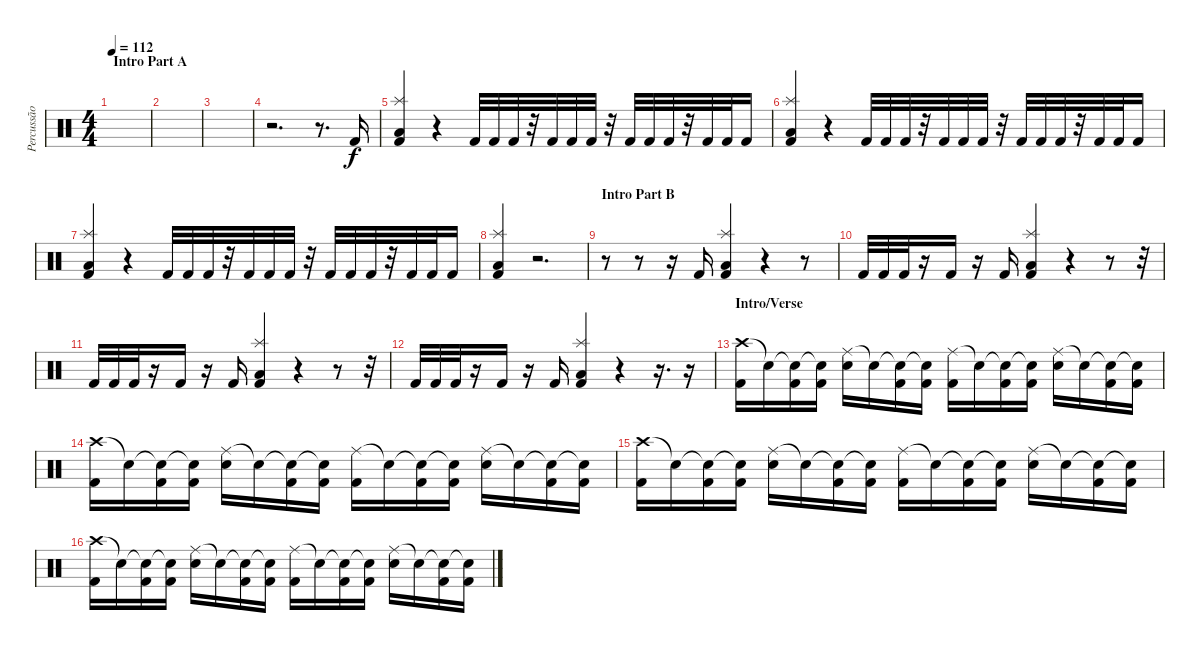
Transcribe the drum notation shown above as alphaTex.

\track ("Percussão" "Percussão") {instrument percussion}
\staff {score}
\articulation defaults
\ts (4 4)
\section ("" "Intro Part A")
\tempo 112
\clef neutral
\ks c
|
|
|
r.2{d} r.8{d} "Kick (hit) 2".16 |
("Splash (hit)" "Low Tom (hit)" "Kick (hit) 2").4 r.4 "Kick (hit) 2".32 "Kick (hit) 2".32 "Kick (hit) 2".32 r.32 "Kick (hit) 2".32 "Kick (hit) 2".32 "Kick (hit) 2".32 r.32 "Kick (hit) 2".32 "Kick (hit) 2".32 "Kick (hit) 2".32 r.32 "Kick (hit) 2".32 "Kick (hit) 2".32 "Kick (hit) 2".16 |
("Splash (hit)" "Low Tom (hit)" "Kick (hit) 2").4 r.4 "Kick (hit) 2".32 "Kick (hit) 2".32 "Kick (hit) 2".32 r.32 "Kick (hit) 2".32 "Kick (hit) 2".32 "Kick (hit) 2".32 r.32 "Kick (hit) 2".32 "Kick (hit) 2".32 "Kick (hit) 2".32 r.32 "Kick (hit) 2".32 "Kick (hit) 2".32 "Kick (hit) 2".16 |
("Splash (hit)" "Low Tom (hit)" "Kick (hit) 2").4 r.4 "Kick (hit) 2".32 "Kick (hit) 2".32 "Kick (hit) 2".32 r.32 "Kick (hit) 2".32 "Kick (hit) 2".32 "Kick (hit) 2".32 r.32 "Kick (hit) 2".32 "Kick (hit) 2".32 "Kick (hit) 2".32 r.32 "Kick (hit) 2".32 "Kick (hit) 2".32 "Kick (hit) 2".16 |
("Splash (hit)" "Low Tom (hit)" "Kick (hit) 2").4 r.2{d} |
\section ("" "Intro Part B")
r.8 r.8 r.16 "Kick (hit) 2".16 ("Splash (hit)" "Low Tom (hit)" "Kick (hit) 2").4 r.4 r.8 |
"Kick (hit) 2".32 "Kick (hit) 2".32 "Kick (hit) 2".32 r.16 "Kick (hit) 2".16 r.16 "Kick (hit) 2".16 ("Splash (hit)" "Low Tom (hit)" "Kick (hit) 2").4 r.4 r.8 r.32 |
"Kick (hit) 2".32 "Kick (hit) 2".32 "Kick (hit) 2".32 r.16 "Kick (hit) 2".16 r.16 "Kick (hit) 2".16 ("Splash (hit)" "Low Tom (hit)" "Kick (hit) 2").4 r.4 r.8 r.32 |
"Kick (hit) 2".32 "Kick (hit) 2".32 "Kick (hit) 2".32 r.16 "Kick (hit) 2".16 r.16 "Kick (hit) 2".16 ("Splash (hit)" "Low Tom (hit)" "Kick (hit) 2").4 r.4 r.16{d} r.16 |
\section ("" "Intro/Verse")
("Crash high (hit)" "Kick (hit) 2").16 "Snare (hit)"{t}.16 ("Snare (hit)"{t} "Kick (hit) 2").16 ("Snare (hit)"{t} "Kick (hit) 2").16 ("Ride (middle)" "Electric Snare (hit)").16 "Snare (hit)"{t}.16 ("Snare (hit)"{t} "Kick (hit) 2").16 ("Snare (hit)"{t} "Kick (hit) 2").16 ("Ride (middle)" "Kick (hit) 2").16 "Snare (hit)"{t}.16 ("Snare (hit)"{t} "Kick (hit) 2").16 ("Snare (hit)"{t} "Kick (hit) 2").16 ("Ride (middle)" "Electric Snare (hit)").16 "Snare (hit)"{t}.16 ("Snare (hit)"{t} "Kick (hit) 2").16 ("Snare (hit)"{t} "Kick (hit) 2").16 |
("Crash high (hit)" "Kick (hit) 2").16 "Snare (hit)"{t}.16 ("Snare (hit)"{t} "Kick (hit) 2").16 ("Snare (hit)"{t} "Kick (hit) 2").16 ("Ride (middle)" "Electric Snare (hit)").16 "Snare (hit)"{t}.16 ("Snare (hit)"{t} "Kick (hit) 2").16 ("Snare (hit)"{t} "Kick (hit) 2").16 ("Ride (middle)" "Kick (hit) 2").16 "Snare (hit)"{t}.16 ("Snare (hit)"{t} "Kick (hit) 2").16 ("Snare (hit)"{t} "Kick (hit) 2").16 ("Ride (middle)" "Electric Snare (hit)").16 "Snare (hit)"{t}.16 ("Snare (hit)"{t} "Kick (hit) 2").16 ("Snare (hit)"{t} "Kick (hit) 2").16 |
("Crash high (hit)" "Kick (hit) 2").16 "Snare (hit)"{t}.16 ("Snare (hit)"{t} "Kick (hit) 2").16 ("Snare (hit)"{t} "Kick (hit) 2").16 ("Ride (middle)" "Electric Snare (hit)").16 "Snare (hit)"{t}.16 ("Snare (hit)"{t} "Kick (hit) 2").16 ("Snare (hit)"{t} "Kick (hit) 2").16 ("Ride (middle)" "Kick (hit) 2").16 "Snare (hit)"{t}.16 ("Snare (hit)"{t} "Kick (hit) 2").16 ("Snare (hit)"{t} "Kick (hit) 2").16 ("Ride (middle)" "Electric Snare (hit)").16 "Snare (hit)"{t}.16 ("Snare (hit)"{t} "Kick (hit) 2").16 ("Snare (hit)"{t} "Kick (hit) 2").16 |
("Crash high (hit)" "Kick (hit) 2").16 "Snare (hit)"{t}.16 ("Snare (hit)"{t} "Kick (hit) 2").16 ("Snare (hit)"{t} "Kick (hit) 2").16 ("Ride (middle)" "Electric Snare (hit)").16 "Snare (hit)"{t}.16 ("Snare (hit)"{t} "Kick (hit) 2").16 ("Snare (hit)"{t} "Kick (hit) 2").16 ("Ride (middle)" "Kick (hit) 2").16 "Snare (hit)"{t}.16 ("Snare (hit)"{t} "Kick (hit) 2").16 ("Snare (hit)"{t} "Kick (hit) 2").16 ("Ride (middle)" "Electric Snare (hit)").16 "Snare (hit)"{t}.16 ("Snare (hit)"{t} "Kick (hit) 2").16 ("Snare (hit)"{t} "Kick (hit) 2").16
